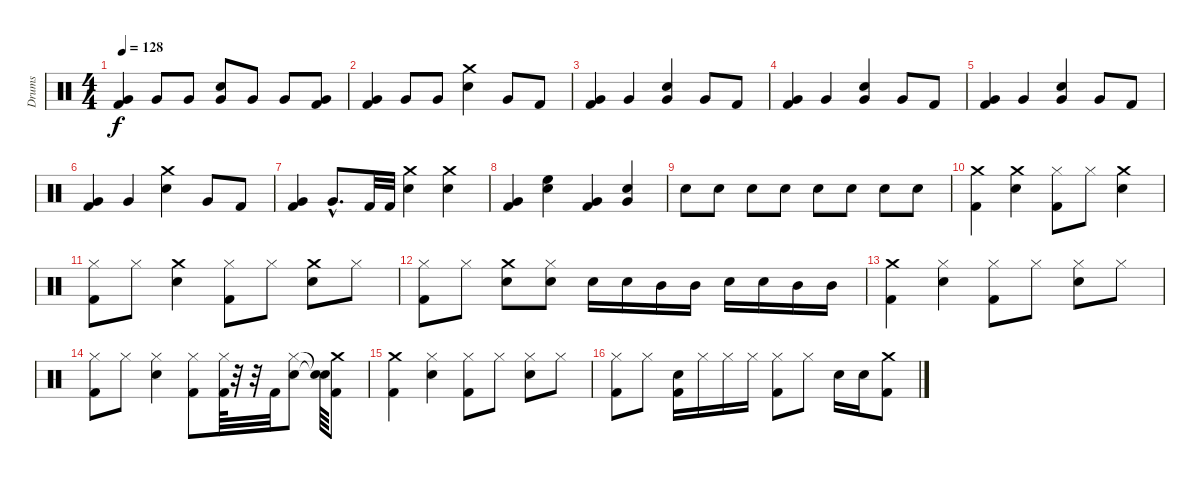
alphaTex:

\track ("Drums" "Drums") {instrument percussion}
\staff {score}
\articulation defaults
\ts (4 4)
\tempo 128
\clef neutral
\ks c
("Very Low Tom (hit)" "Kick (hit) 2").4{dy f} "Very Low Tom (hit)".8 "Very Low Tom (hit)".8 ("Snare (hit) 2" "Very Low Tom (hit)").8 "Very Low Tom (hit)".8 "Very Low Tom (hit)".8 ("Kick (hit) 2" "Very Low Tom (hit)").8 |
("Kick (hit) 2" "Very Low Tom (hit)").4 "Very Low Tom (hit)".8 "Very Low Tom (hit)".8 ("Crash medium (hit)" "Snare (hit) 2").4 "Very Low Tom (hit)".8 "Kick (hit) 2".8 |
("Kick (hit) 2" "Very Low Tom (hit)").4 "Very Low Tom (hit)".4 ("Snare (hit) 2" "Very Low Tom (hit)").4 "Very Low Tom (hit)".8 "Kick (hit) 2".8 |
("Kick (hit) 2" "Very Low Tom (hit)").4 "Very Low Tom (hit)".4 ("Snare (hit) 2" "Very Low Tom (hit)").4 "Very Low Tom (hit)".8 "Kick (hit) 2".8 |
("Kick (hit) 2" "Very Low Tom (hit)").4 "Very Low Tom (hit)".4 ("Snare (hit) 2" "Very Low Tom (hit)").4 "Very Low Tom (hit)".8 "Kick (hit) 2".8 |
("Kick (hit) 2" "Very Low Tom (hit)").4 "Very Low Tom (hit)".4 ("Crash medium (hit)" "Snare (hit) 2").4 "Very Low Tom (hit)".8 "Kick (hit) 2".8 |
("Very Low Tom (hit)" "Kick (hit) 2").4 "Very Low Tom (hit)"{hac}.8{d} "Kick (hit) 2".32 "Kick (hit) 2".32 ("Snare (hit) 2" "Crash medium (hit)").4 ("Snare (hit) 2" "Crash medium (hit)").4 |
("Very Low Tom (hit)" "Kick (hit) 2").4 ("High Floor Tom (hit)" "Snare (hit) 2").4 ("Very Low Tom (hit)" "Kick (hit) 2").4 ("Snare (hit) 2" "Very Low Tom (hit)").4 |
"Snare (hit) 2".8 "Snare (hit) 2".8 "Snare (hit) 2".8 "Snare (hit) 2".8 "Snare (hit) 2".8 "Snare (hit) 2".8 "Snare (hit) 2".8 "Snare (hit) 2".8 |
("Kick (hit) 2" "Crash medium (hit)").4 ("Snare (hit) 2" "Crash medium (hit)").4 ("Kick (hit) 2" "Hi-Hat (closed)").8 "Hi-Hat (closed)".8 ("Crash medium (hit)" "Snare (hit) 2").4 |
("Kick (hit) 2" "Hi-Hat (closed)").8 "Hi-Hat (closed)".8 ("Crash medium (hit)" "Snare (hit) 2").4 ("Kick (hit) 2" "Hi-Hat (closed)").8 "Hi-Hat (closed)".8 ("Snare (hit) 2" "Crash medium (hit)").8 "Hi-Hat (closed)".8 |
("Hi-Hat (closed)" "Kick (hit) 2").8 "Hi-Hat (closed)".8 ("Crash medium (hit)" "Snare (hit) 2").8 ("Snare (hit) 2" "Hi-Hat (closed)").8 "Snare (hit) 2".16 "Snare (hit) 2".16 "Mid Tom (hit)".16 "Mid Tom (hit)".16 "Snare (hit) 2".16 "Snare (hit) 2".16 "Mid Tom (hit)".16 "Mid Tom (hit)".16 |
("Kick (hit) 2" "Crash medium (hit)").4 ("Hi-Hat (closed)" "Snare (hit) 2").4 ("Hi-Hat (closed)" "Kick (hit) 2").8 "Hi-Hat (closed)".8 ("Hi-Hat (closed)" "Snare (hit) 2").8 "Hi-Hat (closed)".8 |
("Kick (hit) 2" "Hi-Hat (closed)").8 "Hi-Hat (closed)".8 ("Hi-Hat (closed)" "Snare (hit) 2").4 ("Kick (hit) 2" "Hi-Hat (closed)").8 ("Kick (hit) 2" "Hi-Hat (closed)").64 r.32 r.32 "Kick (hit) 2".32 ("Snare (hit) 2" "Hi-Hat (closed)").8 ("Snare (hit)"{t} "Snare (hit)"{t}).64 ("Kick (hit) 2" "Crash medium (hit)").8 |
("Kick (hit) 2" "Crash medium (hit)").4 ("Snare (hit) 2" "Hi-Hat (closed)").4 ("Kick (hit) 2" "Hi-Hat (closed)").8 "Hi-Hat (closed)".8 ("Snare (hit) 2" "Hi-Hat (closed)").8 "Hi-Hat (closed)".8 |
("Kick (hit) 2" "Hi-Hat (closed)").8 "Hi-Hat (closed)".8 ("Kick (hit) 2" "Snare (hit) 2").16 "Hi-Hat (closed)".16 "Hi-Hat (closed)".16 "Hi-Hat (closed)".16 ("Kick (hit) 2" "Hi-Hat (closed)").8 "Hi-Hat (closed)".8 "Snare (hit) 2".16 "Snare (hit) 2".16 ("Crash medium (hit)" "Kick (hit) 2").8
